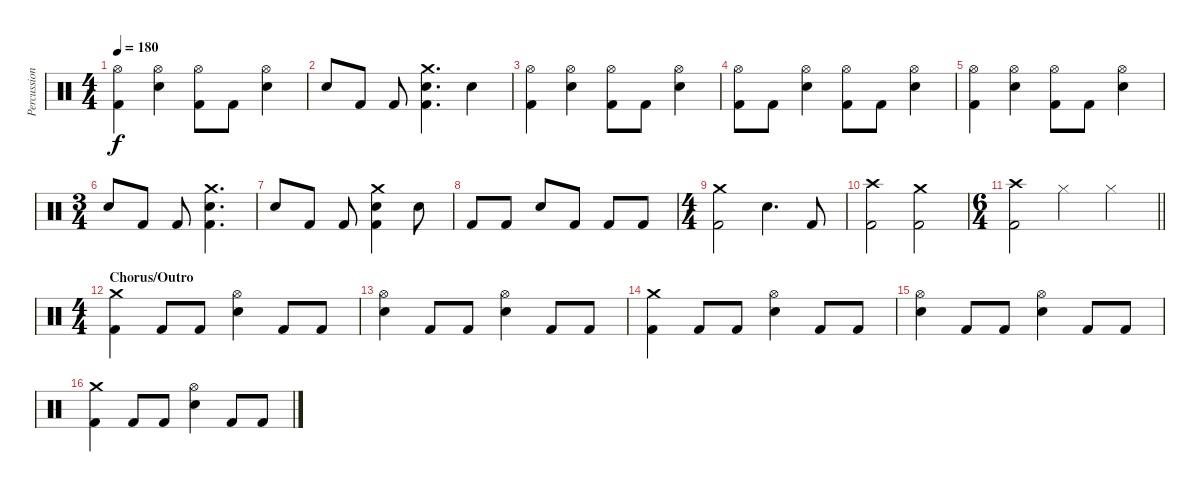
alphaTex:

\track ("Percussion" "Percussion") {instrument percussion}
\staff {score}
\articulation defaults
\ts (4 4)
\tempo 180
\clef neutral
\ks c
("Hi-Hat (open)" "Kick (hit) 2").4{dy f} ("Hi-Hat (open)" "Snare (hit) 2").4 ("Hi-Hat (open)" "Kick (hit) 2").8 "Kick (hit) 2".8 ("Hi-Hat (open)" "Snare (hit) 2").4 |
"Snare (hit) 2".8 "Kick (hit) 2".8 "Kick (hit) 2".8 ("Crash medium (hit)" "Snare (hit) 2" "Kick (hit) 2").4{d} "Snare (hit) 2".4 |
("Hi-Hat (open)" "Kick (hit) 2").4 ("Hi-Hat (open)" "Snare (hit) 2").4 ("Hi-Hat (open)" "Kick (hit) 2").8 "Kick (hit) 2".8 ("Hi-Hat (open)" "Snare (hit) 2").4 |
("Hi-Hat (open)" "Kick (hit) 2").8 "Kick (hit) 2".8 ("Hi-Hat (open)" "Snare (hit) 2").4 ("Hi-Hat (open)" "Kick (hit) 2").8 "Kick (hit) 2".8 ("Hi-Hat (open)" "Snare (hit) 2").4 |
("Hi-Hat (open)" "Kick (hit) 2").4 ("Hi-Hat (open)" "Snare (hit) 2").4 ("Hi-Hat (open)" "Kick (hit) 2").8 "Kick (hit) 2".8 ("Hi-Hat (open)" "Snare (hit) 2").4 |
\ts (3 4)
"Snare (hit) 2".8 "Kick (hit) 2".8 "Kick (hit) 2".8 ("Crash medium (hit)" "Snare (hit) 2" "Kick (hit) 2").4{d} |
"Snare (hit) 2".8 "Kick (hit) 2".8 "Kick (hit) 2".8 ("Crash medium (hit)" "Snare (hit) 2" "Kick (hit) 2").4 "Snare (hit) 2".8 |
"Kick (hit) 2".8 "Kick (hit) 2".8 "Snare (hit) 2".8 "Kick (hit) 2".8 "Kick (hit) 2".8 "Kick (hit) 2".8 |
\ts (4 4)
("Crash medium (hit)" "Kick (hit) 2").2 "Snare (hit) 2".4{d} "Kick (hit) 2".8 |
("Crash high (hit)" "Kick (hit) 2").2 ("Crash medium (hit)" "Kick (hit) 2").2 |
\ts (6 4)
\barLineRight lightlight
("Crash high (hit)" "Kick (hit) 2").2 "Hi-Hat (closed)".2 "Hi-Hat (closed)".2 |
\ts (4 4)
\section ("" "Chorus/Outro")
("Crash medium (hit)" "Kick (hit) 2").4 "Kick (hit) 2".8 "Kick (hit) 2".8 ("Hi-Hat (open)" "Snare (hit) 2").4 "Kick (hit) 2".8 "Kick (hit) 2".8 |
("Hi-Hat (open)" "Snare (hit) 2").4 "Kick (hit) 2".8 "Kick (hit) 2".8 ("Hi-Hat (open)" "Snare (hit) 2").4 "Kick (hit) 2".8 "Kick (hit) 2".8 |
("Crash medium (hit)" "Kick (hit) 2").4 "Kick (hit) 2".8 "Kick (hit) 2".8 ("Hi-Hat (open)" "Snare (hit) 2").4 "Kick (hit) 2".8 "Kick (hit) 2".8 |
("Hi-Hat (open)" "Snare (hit) 2").4 "Kick (hit) 2".8 "Kick (hit) 2".8 ("Hi-Hat (open)" "Snare (hit) 2").4 "Kick (hit) 2".8 "Kick (hit) 2".8 |
("Crash medium (hit)" "Kick (hit) 2").4 "Kick (hit) 2".8 "Kick (hit) 2".8 ("Hi-Hat (open)" "Snare (hit) 2").4 "Kick (hit) 2".8 "Kick (hit) 2".8
